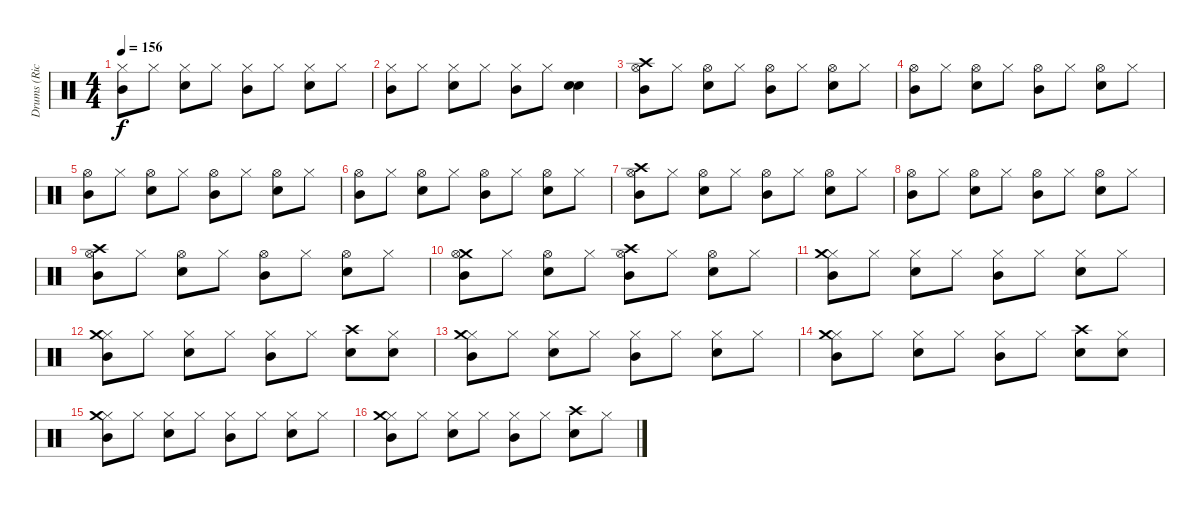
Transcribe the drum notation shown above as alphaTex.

\track ("Drums (Ricky)" "Drums (Ric") {instrument percussion}
\staff {score}
\articulation defaults
\ts (4 4)
\tempo 156
\clef neutral
\ks c
("Mid Tom (hit)" "Hi-Hat (closed)").8{dy f} "Hi-Hat (closed)".8 ("Electric Snare (hit)" "Hi-Hat (closed)").8 "Hi-Hat (closed)".8 ("Mid Tom (hit)" "Hi-Hat (closed)").8 "Hi-Hat (closed)".8 ("Electric Snare (hit)" "Hi-Hat (closed)").8 "Hi-Hat (closed)".8 |
("Mid Tom (hit)" "Hi-Hat (closed)").8 "Hi-Hat (closed)".8 ("Electric Snare (hit)" "Hi-Hat (closed)").8 "Hi-Hat (closed)".8 ("Mid Tom (hit)" "Hi-Hat (closed)").8 "Hi-Hat (closed)".8 ("Electric Snare (hit)" "Electric Snare (hit)").4 |
("Crash high (hit)" "Mid Tom (hit)" "Hi-Hat (open)").8 "Hi-Hat (closed)".8 ("Electric Snare (hit)" "Hi-Hat (open)").8 "Hi-Hat (closed)".8 ("Mid Tom (hit)" "Hi-Hat (open)").8 "Hi-Hat (closed)".8 ("Electric Snare (hit)" "Hi-Hat (open)").8 "Hi-Hat (closed)".8 |
("Mid Tom (hit)" "Hi-Hat (open)").8 "Hi-Hat (closed)".8 ("Electric Snare (hit)" "Hi-Hat (open)").8 "Hi-Hat (closed)".8 ("Mid Tom (hit)" "Hi-Hat (open)").8 "Hi-Hat (closed)".8 ("Electric Snare (hit)" "Hi-Hat (open)").8 "Hi-Hat (closed)".8 |
("Mid Tom (hit)" "Hi-Hat (open)").8 "Hi-Hat (closed)".8 ("Electric Snare (hit)" "Hi-Hat (open)").8 "Hi-Hat (closed)".8 ("Mid Tom (hit)" "Hi-Hat (open)").8 "Hi-Hat (closed)".8 ("Electric Snare (hit)" "Hi-Hat (open)").8 "Hi-Hat (closed)".8 |
("Mid Tom (hit)" "Hi-Hat (open)").8 "Hi-Hat (closed)".8 ("Electric Snare (hit)" "Hi-Hat (open)").8 "Hi-Hat (closed)".8 ("Mid Tom (hit)" "Hi-Hat (open)").8 "Hi-Hat (closed)".8 ("Electric Snare (hit)" "Hi-Hat (open)").8 "Hi-Hat (closed)".8 |
("Crash high (hit)" "Mid Tom (hit)" "Hi-Hat (open)").8 "Hi-Hat (closed)".8 ("Electric Snare (hit)" "Hi-Hat (open)").8 "Hi-Hat (closed)".8 ("Mid Tom (hit)" "Hi-Hat (open)").8 "Hi-Hat (closed)".8 ("Electric Snare (hit)" "Hi-Hat (open)").8 "Hi-Hat (closed)".8 |
("Mid Tom (hit)" "Hi-Hat (open)").8 "Hi-Hat (closed)".8 ("Electric Snare (hit)" "Hi-Hat (open)").8 "Hi-Hat (closed)".8 ("Mid Tom (hit)" "Hi-Hat (open)").8 "Hi-Hat (closed)".8 ("Electric Snare (hit)" "Hi-Hat (open)").8 "Hi-Hat (closed)".8 |
("Crash high (hit)" "Mid Tom (hit)" "Hi-Hat (open)").8 "Hi-Hat (closed)".8 ("Electric Snare (hit)" "Hi-Hat (open)").8 "Hi-Hat (closed)".8 ("Mid Tom (hit)" "Hi-Hat (open)").8 "Hi-Hat (closed)".8 ("Electric Snare (hit)" "Hi-Hat (open)").8 "Hi-Hat (closed)".8 |
("Crash medium (hit)" "Mid Tom (hit)" "Hi-Hat (open)").8 "Hi-Hat (closed)".8 ("Electric Snare (hit)" "Hi-Hat (open)").8 "Hi-Hat (closed)".8 ("Crash high (hit)" "Mid Tom (hit)" "Hi-Hat (open)").8 "Hi-Hat (closed)".8 ("Electric Snare (hit)" "Hi-Hat (open)").8 "Hi-Hat (closed)".8 |
("Mid Tom (hit)" "Hi-Hat (closed)" "Crash medium (hit)").8 "Hi-Hat (closed)".8 ("Hi-Hat (closed)" "Electric Snare (hit)").8 "Hi-Hat (closed)".8 ("Mid Tom (hit)" "Hi-Hat (closed)").8 "Hi-Hat (closed)".8 ("Hi-Hat (closed)" "Electric Snare (hit)").8 "Hi-Hat (closed)".8 |
("Mid Tom (hit)" "Hi-Hat (closed)" "Crash medium (hit)").8 "Hi-Hat (closed)".8 ("Hi-Hat (closed)" "Electric Snare (hit)").8 "Hi-Hat (closed)".8 ("Mid Tom (hit)" "Hi-Hat (closed)").8 "Hi-Hat (closed)".8 ("Crash high (hit)" "Electric Snare (hit)").8 ("Hi-Hat (closed)" "Electric Snare (hit)").8 |
("Mid Tom (hit)" "Hi-Hat (closed)" "Crash medium (hit)").8 "Hi-Hat (closed)".8 ("Hi-Hat (closed)" "Electric Snare (hit)").8 "Hi-Hat (closed)".8 ("Mid Tom (hit)" "Hi-Hat (closed)").8 "Hi-Hat (closed)".8 ("Hi-Hat (closed)" "Electric Snare (hit)").8 "Hi-Hat (closed)".8 |
("Mid Tom (hit)" "Hi-Hat (closed)" "Crash medium (hit)").8 "Hi-Hat (closed)".8 ("Hi-Hat (closed)" "Electric Snare (hit)").8 "Hi-Hat (closed)".8 ("Mid Tom (hit)" "Hi-Hat (closed)").8 "Hi-Hat (closed)".8 ("Crash high (hit)" "Electric Snare (hit)").8 ("Hi-Hat (closed)" "Electric Snare (hit)").8 |
("Mid Tom (hit)" "Hi-Hat (closed)" "Crash medium (hit)").8 "Hi-Hat (closed)".8 ("Hi-Hat (closed)" "Electric Snare (hit)").8 "Hi-Hat (closed)".8 ("Mid Tom (hit)" "Hi-Hat (closed)").8 "Hi-Hat (closed)".8 ("Hi-Hat (closed)" "Electric Snare (hit)").8 "Hi-Hat (closed)".8 |
("Mid Tom (hit)" "Hi-Hat (closed)" "Crash medium (hit)").8 "Hi-Hat (closed)".8 ("Hi-Hat (closed)" "Electric Snare (hit)").8 "Hi-Hat (closed)".8 ("Mid Tom (hit)" "Hi-Hat (closed)").8 "Hi-Hat (closed)".8 ("Crash high (hit)" "Electric Snare (hit)").8 "Hi-Hat (closed)".8
